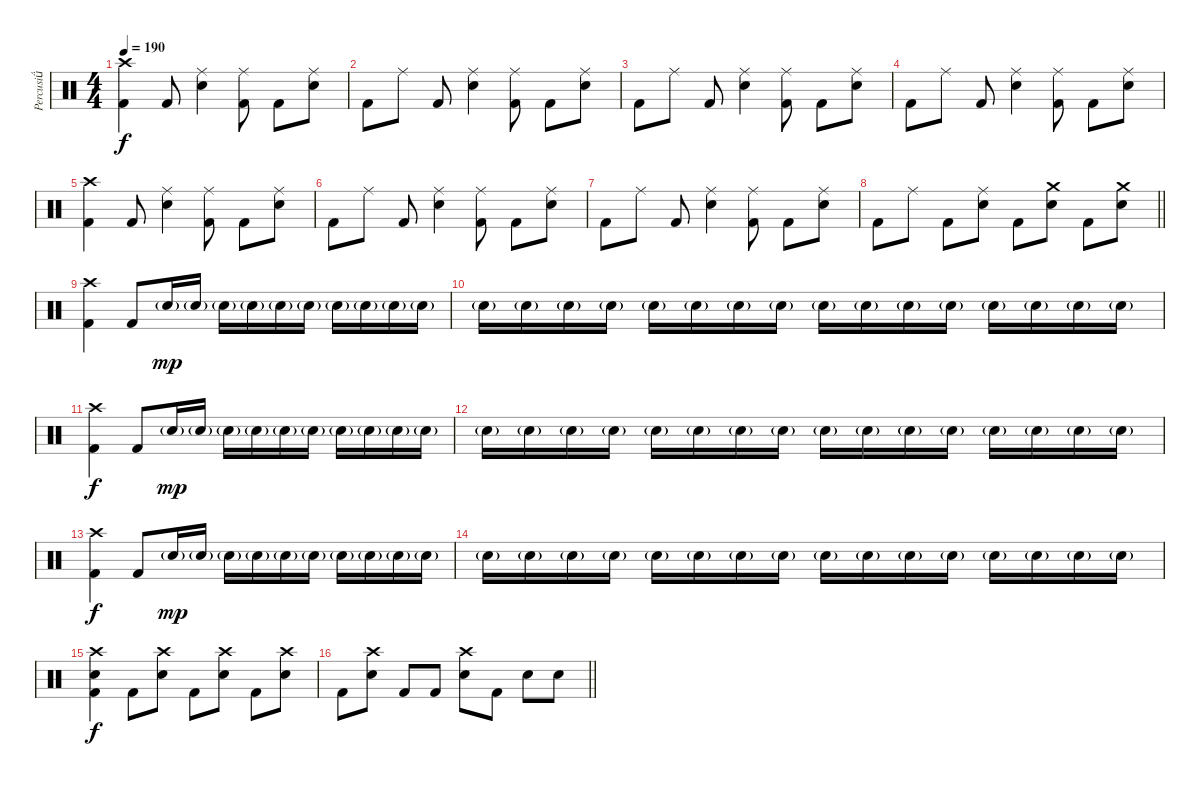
\track ("Percusi" "Percusi") {instrument percussion}
\staff {score}
\articulation defaults
\ts (4 4)
\tempo 190
\clef neutral
\ks c
("Crash high (hit)" "Kick (hit) 2").4{dy f} "Kick (hit) 2".8 ("Ride (middle)" "Electric Snare (hit)").4 ("Ride (middle)" "Kick (hit) 2").8 "Kick (hit) 2".8 ("Ride (middle)" "Electric Snare (hit)").8 |
"Kick (hit) 2".8 "Ride (middle)".8 "Kick (hit) 2".8 ("Ride (middle)" "Electric Snare (hit)").4 ("Ride (middle)" "Kick (hit) 2").8 "Kick (hit) 2".8 ("Ride (middle)" "Electric Snare (hit)").8 |
"Kick (hit) 2".8 "Ride (middle)".8 "Kick (hit) 2".8 ("Ride (middle)" "Electric Snare (hit)").4 ("Ride (middle)" "Kick (hit) 2").8 "Kick (hit) 2".8 ("Ride (middle)" "Electric Snare (hit)").8 |
"Kick (hit) 2".8 "Ride (middle)".8 "Kick (hit) 2".8 ("Ride (middle)" "Electric Snare (hit)").4 ("Ride (middle)" "Kick (hit) 2").8 "Kick (hit) 2".8 ("Ride (middle)" "Electric Snare (hit)").8 |
("Crash high (hit)" "Kick (hit) 2").4 "Kick (hit) 2".8 ("Ride (middle)" "Electric Snare (hit)").4 ("Ride (middle)" "Kick (hit) 2").8 "Kick (hit) 2".8 ("Ride (middle)" "Electric Snare (hit)").8 |
"Kick (hit) 2".8 "Ride (middle)".8 "Kick (hit) 2".8 ("Ride (middle)" "Electric Snare (hit)").4 ("Ride (middle)" "Kick (hit) 2").8 "Kick (hit) 2".8 ("Ride (middle)" "Electric Snare (hit)").8 |
"Kick (hit) 2".8 "Ride (middle)".8 "Kick (hit) 2".8 ("Ride (middle)" "Electric Snare (hit)").4 ("Ride (middle)" "Kick (hit) 2").8 "Kick (hit) 2".8 ("Ride (middle)" "Electric Snare (hit)").8 |
\barLineRight lightlight "Kick (hit) 2".8 "Ride (middle)".8 "Kick (hit) 2".8
("Ride (middle)" "Electric Snare (hit)").8 "Kick (hit) 2".8 ("Crash medium (hit)" "Electric Snare (hit)").8 "Kick (hit) 2".8 ("Crash medium (hit)" "Electric Snare (hit)").8 |
("Crash high (hit)" "Kick (hit) 2").4 "Kick (hit) 2".8 "Electric Snare (hit)"{g}.16{dy mp} "Electric Snare (hit)"{g}.16 "Electric Snare (hit)"{g}.16 "Electric Snare (hit)"{g}.16 "Electric Snare (hit)"{g}.16 "Electric Snare (hit)"{g}.16 "Electric Snare (hit)"{g}.16 "Electric Snare (hit)"{g}.16 "Electric Snare (hit)"{g}.16 "Electric Snare (hit)"{g}.16 |
"Electric Snare (hit)"{g}.16 "Electric Snare (hit)"{g}.16 "Electric Snare (hit)"{g}.16 "Electric Snare (hit)"{g}.16 "Electric Snare (hit)"{g}.16 "Electric Snare (hit)"{g}.16 "Electric Snare (hit)"{g}.16 "Electric Snare (hit)"{g}.16 "Electric Snare (hit)"{g}.16 "Electric Snare (hit)"{g}.16 "Electric Snare (hit)"{g}.16 "Electric Snare (hit)"{g}.16 "Electric Snare (hit)"{g}.16 "Electric Snare (hit)"{g}.16 "Electric Snare (hit)"{g}.16 "Electric Snare (hit)"{g}.16 |
("Crash high (hit)" "Kick (hit) 2").4{dy f} "Kick (hit) 2".8 "Electric Snare (hit)"{g}.16{dy mp} "Electric Snare (hit)"{g}.16 "Electric Snare (hit)"{g}.16 "Electric Snare (hit)"{g}.16 "Electric Snare (hit)"{g}.16 "Electric Snare (hit)"{g}.16 "Electric Snare (hit)"{g}.16 "Electric Snare (hit)"{g}.16 "Electric Snare (hit)"{g}.16 "Electric Snare (hit)"{g}.16 |
"Electric Snare (hit)"{g}.16 "Electric Snare (hit)"{g}.16 "Electric Snare (hit)"{g}.16 "Electric Snare (hit)"{g}.16 "Electric Snare (hit)"{g}.16 "Electric Snare (hit)"{g}.16 "Electric Snare (hit)"{g}.16 "Electric Snare (hit)"{g}.16 "Electric Snare (hit)"{g}.16 "Electric Snare (hit)"{g}.16 "Electric Snare (hit)"{g}.16 "Electric Snare (hit)"{g}.16 "Electric Snare (hit)"{g}.16 "Electric Snare (hit)"{g}.16 "Electric Snare (hit)"{g}.16 "Electric Snare (hit)"{g}.16 |
("Crash high (hit)" "Kick (hit) 2").4{dy f} "Kick (hit) 2".8 "Electric Snare (hit)"{g}.16{dy mp} "Electric Snare (hit)"{g}.16 "Electric Snare (hit)"{g}.16 "Electric Snare (hit)"{g}.16 "Electric Snare (hit)"{g}.16 "Electric Snare (hit)"{g}.16 "Electric Snare (hit)"{g}.16 "Electric Snare (hit)"{g}.16 "Electric Snare (hit)"{g}.16 "Electric Snare (hit)"{g}.16 |
"Electric Snare (hit)"{g}.16 "Electric Snare (hit)"{g}.16 "Electric Snare (hit)"{g}.16 "Electric Snare (hit)"{g}.16 "Electric Snare (hit)"{g}.16 "Electric Snare (hit)"{g}.16 "Electric Snare (hit)"{g}.16 "Electric Snare (hit)"{g}.16 "Electric Snare (hit)"{g}.16 "Electric Snare (hit)"{g}.16 "Electric Snare (hit)"{g}.16 "Electric Snare (hit)"{g}.16 "Electric Snare (hit)"{g}.16 "Electric Snare (hit)"{g}.16 "Electric Snare (hit)"{g}.16 "Electric Snare (hit)"{g}.16 |
("Crash high (hit)" "Kick (hit) 2" "Electric Snare (hit)").4{dy f} "Kick (hit) 2".8 ("Crash high (hit)" "Electric Snare (hit)").8 "Kick (hit) 2".8 ("Crash high (hit)" "Electric Snare (hit)").8 "Kick (hit) 2".8 ("Crash high (hit)" "Electric Snare (hit)").8 |
\barLineRight lightlight "Kick (hit) 2".8
("Electric Snare (hit)" "Crash high (hit)").8 "Kick (hit) 2".8 "Kick (hit) 2".8 ("Electric Snare (hit)" "Crash high (hit)").8 "Kick (hit) 2".8 "Electric Snare (hit)".8 "Electric Snare (hit)".8
